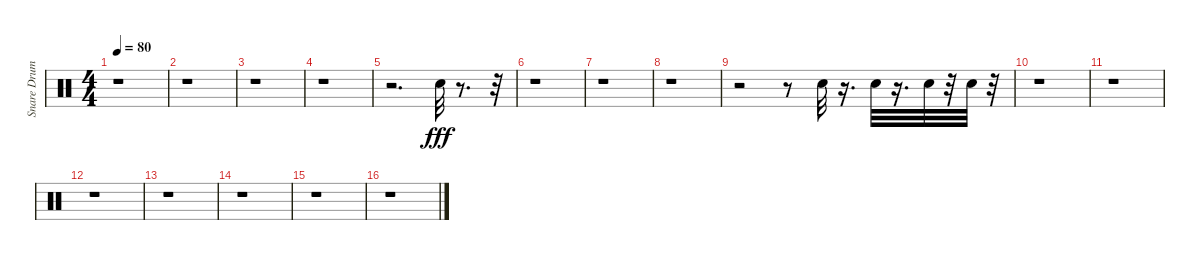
\track ("Snare Drum" "Snare Drum") {instrument percussion}
\staff {score}
\articulation defaults
\ts (4 4)
\tempo 80
\clef neutral
\ks c
r.1{dy fff} |
r.1 |
r.1 |
r.1 |
r.2{d} "Snare (hit) 2".32 r.8{d} r.32 |
r.1 |
r.1 |
r.1 |
r.2 r.8 "Snare (hit) 2".32 r.16{d} "Snare (hit) 2".32 r.16{d} "Snare (hit) 2".32 r.32 "Snare (hit) 2".32 r.32 |
r.1 |
r.1 |
r.1 |
r.1 |
r.1 |
r.1 |
r.1
